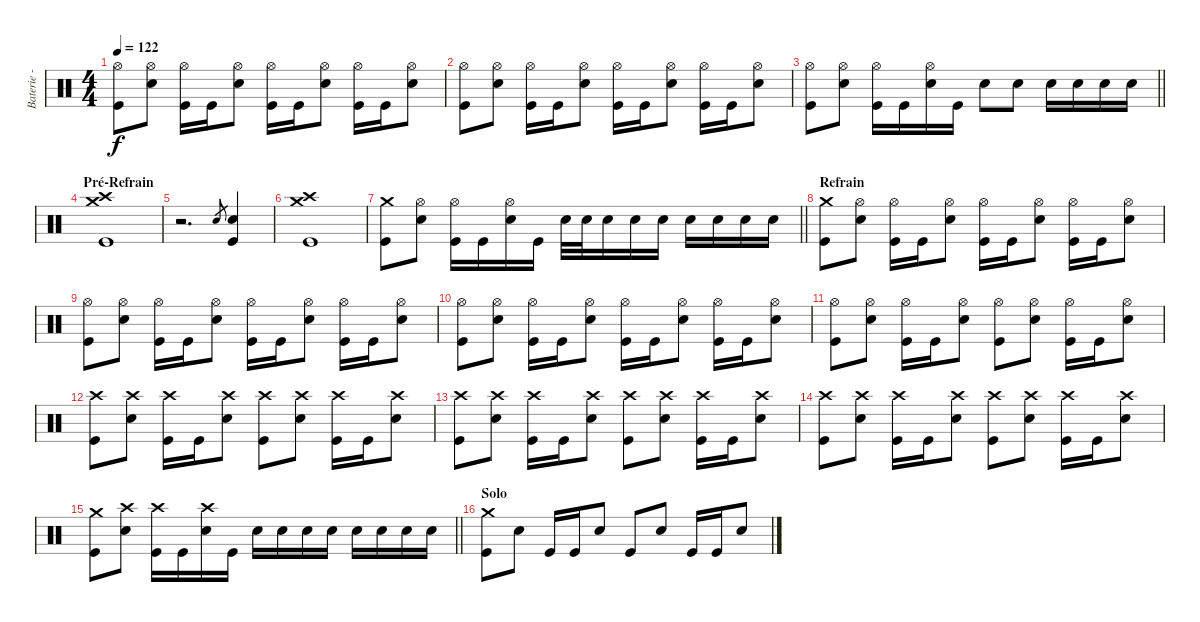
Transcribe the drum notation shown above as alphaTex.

\track ("Baterie - Alex" "Baterie - ") {instrument percussion}
\staff {score}
\articulation defaults
\ts (4 4)
\tempo 122
\clef neutral
\ks c
("Hi-Hat (open)" "Kick (hit)").8{dy f} ("Hi-Hat (open)" "Electric Snare (hit)").8 ("Hi-Hat (open)" "Kick (hit)").16 "Kick (hit)".16 ("Hi-Hat (open)" "Electric Snare (hit)").8 ("Hi-Hat (open)" "Kick (hit)").16 "Kick (hit)".16 ("Hi-Hat (open)" "Electric Snare (hit)").8 ("Hi-Hat (open)" "Kick (hit)").16 "Kick (hit)".16 ("Hi-Hat (open)" "Electric Snare (hit)").8 |
("Hi-Hat (open)" "Kick (hit)").8 ("Hi-Hat (open)" "Electric Snare (hit)").8 ("Hi-Hat (open)" "Kick (hit)").16 "Kick (hit)".16 ("Hi-Hat (open)" "Electric Snare (hit)").8 ("Hi-Hat (open)" "Kick (hit)").16 "Kick (hit)".16 ("Hi-Hat (open)" "Electric Snare (hit)").8 ("Hi-Hat (open)" "Kick (hit)").16 "Kick (hit)".16 ("Hi-Hat (open)" "Electric Snare (hit)").8 |
\barLineRight lightlight
("Hi-Hat (open)" "Kick (hit)").8 ("Hi-Hat (open)" "Electric Snare (hit)").8 ("Hi-Hat (open)" "Kick (hit)").16 "Kick (hit)".16 ("Hi-Hat (open)" "Electric Snare (hit)").16 "Kick (hit)".16 "Electric Snare (hit)".8 "Electric Snare (hit)".8 "Electric Snare (hit)".16 "Electric Snare (hit)".16 "Electric Snare (hit)".16 "Electric Snare (hit)".16 |
\section ("" "Pré-Refrain")
("Crash medium (hit)" "Crash high (hit)" "Kick (hit)").1 |
r.2{d} "Electric Snare (hit)".8{gr} ("Electric Snare (hit)" "Kick (hit)").4 |
("Crash medium (hit)" "Crash high (hit)" "Kick (hit)").1 |
\barLineRight lightlight
("Crash medium (hit)" "Kick (hit)").8 ("Hi-Hat (open)" "Electric Snare (hit)").8 ("Hi-Hat (open)" "Kick (hit)").16 "Kick (hit)".16 ("Hi-Hat (open)" "Electric Snare (hit)").16 "Kick (hit)".16 "Electric Snare (hit)".32 "Electric Snare (hit)".32 "Electric Snare (hit)".16 "Electric Snare (hit)".16 "Electric Snare (hit)".16 "Electric Snare (hit)".16 "Electric Snare (hit)".16 "Electric Snare (hit)".16 "Electric Snare (hit)".16 |
\section ("" "Refrain")
("Crash medium (hit)" "Kick (hit)").8 ("Hi-Hat (open)" "Electric Snare (hit)").8 ("Hi-Hat (open)" "Kick (hit)").16 "Kick (hit)".16 ("Hi-Hat (open)" "Electric Snare (hit)").8 ("Hi-Hat (open)" "Kick (hit)").16 "Kick (hit)".16 ("Hi-Hat (open)" "Electric Snare (hit)").8 ("Hi-Hat (open)" "Kick (hit)").16 "Kick (hit)".16 ("Hi-Hat (open)" "Electric Snare (hit)").8 |
("Hi-Hat (open)" "Kick (hit)").8 ("Hi-Hat (open)" "Electric Snare (hit)").8 ("Hi-Hat (open)" "Kick (hit)").16 "Kick (hit)".16 ("Hi-Hat (open)" "Electric Snare (hit)").8 ("Hi-Hat (open)" "Kick (hit)").16 "Kick (hit)".16 ("Hi-Hat (open)" "Electric Snare (hit)").8 ("Hi-Hat (open)" "Kick (hit)").16 "Kick (hit)".16 ("Hi-Hat (open)" "Electric Snare (hit)").8 |
("Hi-Hat (open)" "Kick (hit)").8 ("Hi-Hat (open)" "Electric Snare (hit)").8 ("Hi-Hat (open)" "Kick (hit)").16 "Kick (hit)".16 ("Hi-Hat (open)" "Electric Snare (hit)").8 ("Hi-Hat (open)" "Kick (hit)").16 "Kick (hit)".16 ("Hi-Hat (open)" "Electric Snare (hit)").8 ("Hi-Hat (open)" "Kick (hit)").16 "Kick (hit)".16 ("Hi-Hat (open)" "Electric Snare (hit)").8 |
("Hi-Hat (open)" "Kick (hit)").8 ("Hi-Hat (open)" "Electric Snare (hit)").8 ("Hi-Hat (open)" "Kick (hit)").16 "Kick (hit)".16 ("Hi-Hat (open)" "Electric Snare (hit)").8 ("Hi-Hat (open)" "Kick (hit)").8 ("Hi-Hat (open)" "Electric Snare (hit)").8 ("Hi-Hat (open)" "Kick (hit)").16 "Kick (hit)".16 ("Hi-Hat (open)" "Electric Snare (hit)").8 |
("Crash high (hit)" "Kick (hit)").8 ("Crash high (hit)" "Electric Snare (hit)").8 ("Crash high (hit)" "Kick (hit)").16 "Kick (hit)".16 ("Crash high (hit)" "Electric Snare (hit)").8 ("Crash high (hit)" "Kick (hit)").8 ("Crash high (hit)" "Electric Snare (hit)").8 ("Crash high (hit)" "Kick (hit)").16 "Kick (hit)".16 ("Crash high (hit)" "Electric Snare (hit)").8 |
("Crash high (hit)" "Kick (hit)").8 ("Crash high (hit)" "Electric Snare (hit)").8 ("Crash high (hit)" "Kick (hit)").16 "Kick (hit)".16 ("Crash high (hit)" "Electric Snare (hit)").8 ("Crash high (hit)" "Kick (hit)").8 ("Crash high (hit)" "Electric Snare (hit)").8 ("Crash high (hit)" "Kick (hit)").16 "Kick (hit)".16 ("Crash high (hit)" "Electric Snare (hit)").8 |
("Crash high (hit)" "Kick (hit)").8 ("Crash high (hit)" "Electric Snare (hit)").8 ("Crash high (hit)" "Kick (hit)").16 "Kick (hit)".16 ("Crash high (hit)" "Electric Snare (hit)").8 ("Crash high (hit)" "Kick (hit)").8 ("Crash high (hit)" "Electric Snare (hit)").8 ("Crash high (hit)" "Kick (hit)").16 "Kick (hit)".16 ("Crash high (hit)" "Electric Snare (hit)").8 |
\barLineRight lightlight
("Crash medium (hit)" "Kick (hit)").8 ("Crash high (hit)" "Electric Snare (hit)").8 ("Crash high (hit)" "Kick (hit)").16 "Kick (hit)".16 ("Crash high (hit)" "Electric Snare (hit)").16 "Kick (hit)".16 "Electric Snare (hit)".16 "Electric Snare (hit)".16 "Electric Snare (hit)".16 "Electric Snare (hit)".16 "Electric Snare (hit)".16 "Electric Snare (hit)".16 "Electric Snare (hit)".16 "Electric Snare (hit)".16 |
\section ("" "Solo")
("Crash medium (hit)" "Kick (hit)").8 "Electric Snare (hit)".8 "Kick (hit)".16 "Kick (hit)".16 "Electric Snare (hit)".8 "Kick (hit)".8 "Electric Snare (hit)".8 "Kick (hit)".16 "Kick (hit)".16 "Electric Snare (hit)".8
